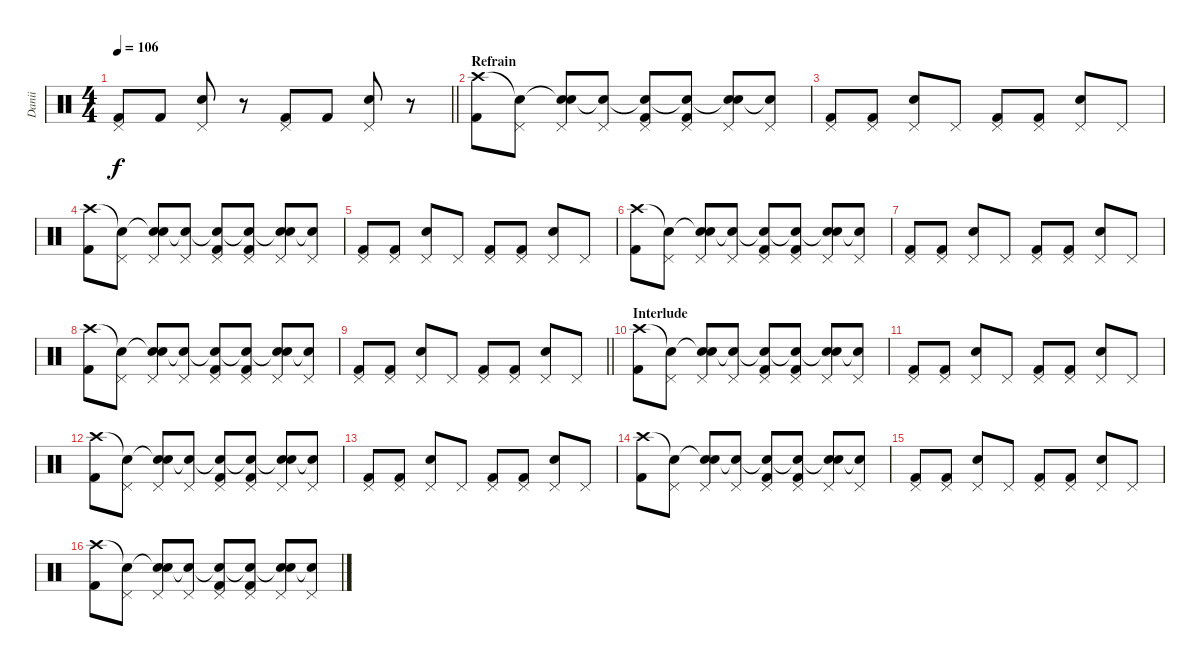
\track ("Danii" "Danii") {instrument percussion}
\staff {score}
\articulation defaults
\ts (4 4)
\tempo 106
\clef neutral
\barLineRight lightlight
\ks c
("Pedal Hi-Hat (hit)" "Kick (hit) 2").8{dy f} "Kick (hit) 2".8 ("Pedal Hi-Hat (hit)" "Snare (hit) 2").8 r.8 ("Pedal Hi-Hat (hit)" "Kick (hit) 2").8 "Kick (hit) 2".8 ("Pedal Hi-Hat (hit)" "Snare (hit) 2").8 r.8 |
\section ("" "Refrain")
("Crash high (hit)" "Kick (hit) 2").8{volume 16} ("Snare (hit)"{t} "Pedal Hi-Hat (hit)").8 ("Snare (hit)"{t} "Pedal Hi-Hat (hit)" "Snare (hit) 2").8 ("Snare (hit)"{t} "Pedal Hi-Hat (hit)").8 ("Snare (hit)"{t} "Pedal Hi-Hat (hit)" "Kick (hit) 2").8 ("Snare (hit)"{t} "Pedal Hi-Hat (hit)" "Kick (hit) 2").8 ("Snare (hit)"{t} "Pedal Hi-Hat (hit)" "Snare (hit) 2").8 ("Snare (hit)"{t} "Pedal Hi-Hat (hit)").8 |
("Pedal Hi-Hat (hit)" "Kick (hit) 2").8 ("Pedal Hi-Hat (hit)" "Kick (hit) 2").8 ("Pedal Hi-Hat (hit)" "Snare (hit) 2").8 "Pedal Hi-Hat (hit)".8 ("Pedal Hi-Hat (hit)" "Kick (hit) 2").8 ("Pedal Hi-Hat (hit)" "Kick (hit) 2").8 ("Pedal Hi-Hat (hit)" "Snare (hit) 2").8 "Pedal Hi-Hat (hit)".8 |
("Crash high (hit)" "Kick (hit) 2").8{volume 16} ("Snare (hit)"{t} "Pedal Hi-Hat (hit)").8 ("Snare (hit)"{t} "Pedal Hi-Hat (hit)" "Snare (hit) 2").8 ("Snare (hit)"{t} "Pedal Hi-Hat (hit)").8 ("Snare (hit)"{t} "Pedal Hi-Hat (hit)" "Kick (hit) 2").8 ("Snare (hit)"{t} "Pedal Hi-Hat (hit)" "Kick (hit) 2").8 ("Snare (hit)"{t} "Pedal Hi-Hat (hit)" "Snare (hit) 2").8 ("Snare (hit)"{t} "Pedal Hi-Hat (hit)").8 |
("Pedal Hi-Hat (hit)" "Kick (hit) 2").8 ("Pedal Hi-Hat (hit)" "Kick (hit) 2").8 ("Pedal Hi-Hat (hit)" "Snare (hit) 2").8 "Pedal Hi-Hat (hit)".8 ("Pedal Hi-Hat (hit)" "Kick (hit) 2").8 ("Pedal Hi-Hat (hit)" "Kick (hit) 2").8 ("Pedal Hi-Hat (hit)" "Snare (hit) 2").8 "Pedal Hi-Hat (hit)".8 |
("Crash high (hit)" "Kick (hit) 2").8{volume 16} ("Snare (hit)"{t} "Pedal Hi-Hat (hit)").8 ("Snare (hit)"{t} "Pedal Hi-Hat (hit)" "Snare (hit) 2").8 ("Snare (hit)"{t} "Pedal Hi-Hat (hit)").8 ("Snare (hit)"{t} "Pedal Hi-Hat (hit)" "Kick (hit) 2").8 ("Snare (hit)"{t} "Pedal Hi-Hat (hit)" "Kick (hit) 2").8 ("Snare (hit)"{t} "Pedal Hi-Hat (hit)" "Snare (hit) 2").8 ("Snare (hit)"{t} "Pedal Hi-Hat (hit)").8 |
("Pedal Hi-Hat (hit)" "Kick (hit) 2").8 ("Pedal Hi-Hat (hit)" "Kick (hit) 2").8 ("Pedal Hi-Hat (hit)" "Snare (hit) 2").8 "Pedal Hi-Hat (hit)".8 ("Pedal Hi-Hat (hit)" "Kick (hit) 2").8 ("Pedal Hi-Hat (hit)" "Kick (hit) 2").8 ("Pedal Hi-Hat (hit)" "Snare (hit) 2").8 "Pedal Hi-Hat (hit)".8 |
("Crash high (hit)" "Kick (hit) 2").8{volume 16} ("Snare (hit)"{t} "Pedal Hi-Hat (hit)").8 ("Snare (hit)"{t} "Pedal Hi-Hat (hit)" "Snare (hit) 2").8 ("Snare (hit)"{t} "Pedal Hi-Hat (hit)").8 ("Snare (hit)"{t} "Pedal Hi-Hat (hit)" "Kick (hit) 2").8 ("Snare (hit)"{t} "Pedal Hi-Hat (hit)" "Kick (hit) 2").8 ("Snare (hit)"{t} "Pedal Hi-Hat (hit)" "Snare (hit) 2").8 ("Snare (hit)"{t} "Pedal Hi-Hat (hit)").8 |
\barLineRight lightlight
("Pedal Hi-Hat (hit)" "Kick (hit) 2").8 ("Pedal Hi-Hat (hit)" "Kick (hit) 2").8 ("Pedal Hi-Hat (hit)" "Snare (hit) 2").8 "Pedal Hi-Hat (hit)".8 ("Pedal Hi-Hat (hit)" "Kick (hit) 2").8 ("Pedal Hi-Hat (hit)" "Kick (hit) 2").8 ("Pedal Hi-Hat (hit)" "Snare (hit) 2").8 "Pedal Hi-Hat (hit)".8 |
\section ("" "Interlude")
("Crash high (hit)" "Kick (hit) 2").8{volume 16} ("Snare (hit)"{t} "Pedal Hi-Hat (hit)").8 ("Snare (hit)"{t} "Pedal Hi-Hat (hit)" "Snare (hit) 2").8 ("Snare (hit)"{t} "Pedal Hi-Hat (hit)").8 ("Snare (hit)"{t} "Pedal Hi-Hat (hit)" "Kick (hit) 2").8 ("Snare (hit)"{t} "Pedal Hi-Hat (hit)" "Kick (hit) 2").8 ("Snare (hit)"{t} "Pedal Hi-Hat (hit)" "Snare (hit) 2").8 ("Snare (hit)"{t} "Pedal Hi-Hat (hit)").8 |
("Pedal Hi-Hat (hit)" "Kick (hit) 2").8 ("Pedal Hi-Hat (hit)" "Kick (hit) 2").8 ("Pedal Hi-Hat (hit)" "Snare (hit) 2").8 "Pedal Hi-Hat (hit)".8 ("Pedal Hi-Hat (hit)" "Kick (hit) 2").8 ("Pedal Hi-Hat (hit)" "Kick (hit) 2").8 ("Pedal Hi-Hat (hit)" "Snare (hit) 2").8 "Pedal Hi-Hat (hit)".8 |
("Crash high (hit)" "Kick (hit) 2").8{volume 16} ("Snare (hit)"{t} "Pedal Hi-Hat (hit)").8 ("Snare (hit)"{t} "Pedal Hi-Hat (hit)" "Snare (hit) 2").8 ("Snare (hit)"{t} "Pedal Hi-Hat (hit)").8 ("Snare (hit)"{t} "Pedal Hi-Hat (hit)" "Kick (hit) 2").8 ("Snare (hit)"{t} "Pedal Hi-Hat (hit)" "Kick (hit) 2").8 ("Snare (hit)"{t} "Pedal Hi-Hat (hit)" "Snare (hit) 2").8 ("Snare (hit)"{t} "Pedal Hi-Hat (hit)").8 |
("Pedal Hi-Hat (hit)" "Kick (hit) 2").8 ("Pedal Hi-Hat (hit)" "Kick (hit) 2").8 ("Pedal Hi-Hat (hit)" "Snare (hit) 2").8 "Pedal Hi-Hat (hit)".8 ("Pedal Hi-Hat (hit)" "Kick (hit) 2").8 ("Pedal Hi-Hat (hit)" "Kick (hit) 2").8 ("Pedal Hi-Hat (hit)" "Snare (hit) 2").8 "Pedal Hi-Hat (hit)".8 |
("Crash high (hit)" "Kick (hit) 2").8{volume 16} ("Snare (hit)"{t} "Pedal Hi-Hat (hit)").8 ("Snare (hit)"{t} "Pedal Hi-Hat (hit)" "Snare (hit) 2").8 ("Snare (hit)"{t} "Pedal Hi-Hat (hit)").8 ("Snare (hit)"{t} "Pedal Hi-Hat (hit)" "Kick (hit) 2").8 ("Snare (hit)"{t} "Pedal Hi-Hat (hit)" "Kick (hit) 2").8 ("Snare (hit)"{t} "Pedal Hi-Hat (hit)" "Snare (hit) 2").8 ("Snare (hit)"{t} "Pedal Hi-Hat (hit)").8 |
("Pedal Hi-Hat (hit)" "Kick (hit) 2").8 ("Pedal Hi-Hat (hit)" "Kick (hit) 2").8 ("Pedal Hi-Hat (hit)" "Snare (hit) 2").8 "Pedal Hi-Hat (hit)".8 ("Pedal Hi-Hat (hit)" "Kick (hit) 2").8 ("Pedal Hi-Hat (hit)" "Kick (hit) 2").8 ("Pedal Hi-Hat (hit)" "Snare (hit) 2").8 "Pedal Hi-Hat (hit)".8 |
("Crash high (hit)" "Kick (hit) 2").8{volume 16} ("Snare (hit)"{t} "Pedal Hi-Hat (hit)").8 ("Snare (hit)"{t} "Pedal Hi-Hat (hit)" "Snare (hit) 2").8 ("Snare (hit)"{t} "Pedal Hi-Hat (hit)").8 ("Snare (hit)"{t} "Pedal Hi-Hat (hit)" "Kick (hit) 2").8 ("Snare (hit)"{t} "Pedal Hi-Hat (hit)" "Kick (hit) 2").8 ("Snare (hit)"{t} "Pedal Hi-Hat (hit)" "Snare (hit) 2").8 ("Snare (hit)"{t} "Pedal Hi-Hat (hit)").8
